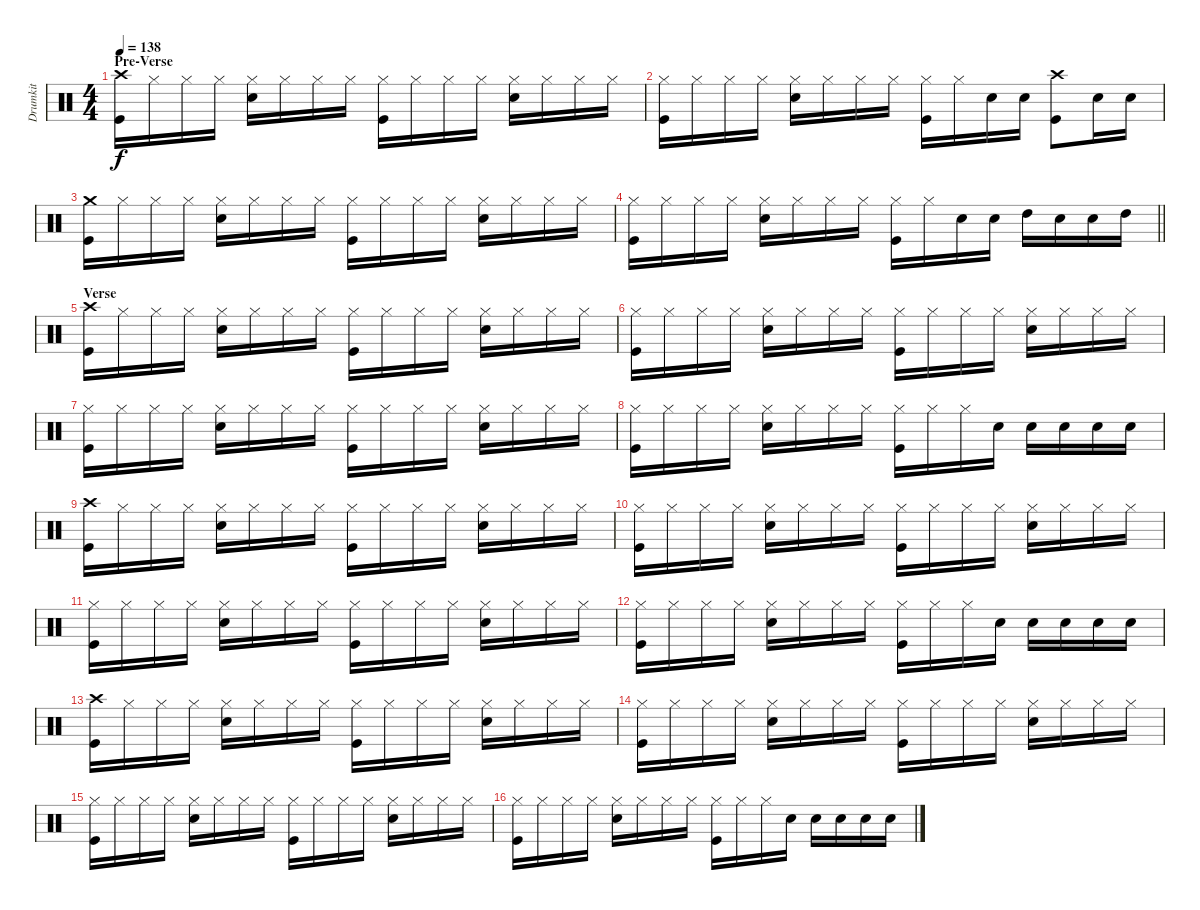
\track ("Drumkit" "Drumkit") {instrument percussion}
\staff {score}
\articulation defaults
\ts (4 4)
\section ("" "Pre-Verse")
\tempo 138
\clef neutral
\ks c
("Kick (hit)" "Crash high (hit)").16{dy f} "Hi-Hat (closed)".16 "Hi-Hat (closed)".16 "Hi-Hat (closed)".16 ("Snare (hit) 2" "Hi-Hat (closed)").16 "Hi-Hat (closed)".16 "Hi-Hat (closed)".16 "Hi-Hat (closed)".16 ("Kick (hit)" "Hi-Hat (closed)").16 "Hi-Hat (closed)".16 "Hi-Hat (closed)".16 "Hi-Hat (closed)".16 ("Snare (hit) 2" "Hi-Hat (closed)").16 "Hi-Hat (closed)".16 "Hi-Hat (closed)".16 "Hi-Hat (closed)".16 |
("Kick (hit)" "Hi-Hat (closed)").16 "Hi-Hat (closed)".16 "Hi-Hat (closed)".16 "Hi-Hat (closed)".16 ("Snare (hit) 2" "Hi-Hat (closed)").16 "Hi-Hat (closed)".16 "Hi-Hat (closed)".16 "Hi-Hat (closed)".16 ("Kick (hit)" "Hi-Hat (closed)").16 "Hi-Hat (closed)".16 "Snare (hit) 2".16 "Snare (hit) 2".16 ("Crash high (hit)" "Kick (hit)").8 "Snare (hit) 2".16 "Snare (hit) 2".16 |
("Kick (hit)" "Crash medium (hit)").16 "Hi-Hat (closed)".16 "Hi-Hat (closed)".16 "Hi-Hat (closed)".16 ("Snare (hit) 2" "Hi-Hat (closed)").16 "Hi-Hat (closed)".16 "Hi-Hat (closed)".16 "Hi-Hat (closed)".16 ("Kick (hit)" "Hi-Hat (closed)").16 "Hi-Hat (closed)".16 "Hi-Hat (closed)".16 "Hi-Hat (closed)".16 ("Snare (hit) 2" "Hi-Hat (closed)").16 "Hi-Hat (closed)".16 "Hi-Hat (closed)".16 "Hi-Hat (closed)".16 |
\barLineRight lightlight
("Kick (hit)" "Hi-Hat (closed)").16 "Hi-Hat (closed)".16 "Hi-Hat (closed)".16 "Hi-Hat (closed)".16 ("Snare (hit) 2" "Hi-Hat (closed)").16 "Hi-Hat (closed)".16 "Hi-Hat (closed)".16 "Hi-Hat (closed)".16 ("Kick (hit)" "Hi-Hat (closed)").16 "Hi-Hat (closed)".16 "Snare (hit) 2".16 "Snare (hit) 2".16 "High Tom (hit)".16 "Snare (hit) 2".16 "Snare (hit) 2".16 "High Tom (hit)".16 |
\section ("" "Verse ")
("Kick (hit)" "Crash high (hit)").16 "Hi-Hat (closed)".16 "Hi-Hat (closed)".16 "Hi-Hat (closed)".16 ("Snare (hit) 2" "Hi-Hat (closed)").16 "Hi-Hat (closed)".16 "Hi-Hat (closed)".16 "Hi-Hat (closed)".16 ("Kick (hit)" "Hi-Hat (closed)").16 "Hi-Hat (closed)".16 "Hi-Hat (closed)".16 "Hi-Hat (closed)".16 ("Snare (hit) 2" "Hi-Hat (closed)").16 "Hi-Hat (closed)".16 "Hi-Hat (closed)".16 "Hi-Hat (closed)".16 |
("Kick (hit)" "Hi-Hat (closed)").16 "Hi-Hat (closed)".16 "Hi-Hat (closed)".16 "Hi-Hat (closed)".16 ("Snare (hit) 2" "Hi-Hat (closed)").16 "Hi-Hat (closed)".16 "Hi-Hat (closed)".16 "Hi-Hat (closed)".16 ("Kick (hit)" "Hi-Hat (closed)").16 "Hi-Hat (closed)".16 "Hi-Hat (closed)".16 "Hi-Hat (closed)".16 ("Snare (hit) 2" "Hi-Hat (closed)").16 "Hi-Hat (closed)".16 "Hi-Hat (closed)".16 "Hi-Hat (closed)".16 |
("Kick (hit)" "Hi-Hat (closed)").16 "Hi-Hat (closed)".16 "Hi-Hat (closed)".16 "Hi-Hat (closed)".16 ("Snare (hit) 2" "Hi-Hat (closed)").16 "Hi-Hat (closed)".16 "Hi-Hat (closed)".16 "Hi-Hat (closed)".16 ("Kick (hit)" "Hi-Hat (closed)").16 "Hi-Hat (closed)".16 "Hi-Hat (closed)".16 "Hi-Hat (closed)".16 ("Snare (hit) 2" "Hi-Hat (closed)").16 "Hi-Hat (closed)".16 "Hi-Hat (closed)".16 "Hi-Hat (closed)".16 |
("Kick (hit)" "Hi-Hat (closed)").16 "Hi-Hat (closed)".16 "Hi-Hat (closed)".16 "Hi-Hat (closed)".16 ("Snare (hit) 2" "Hi-Hat (closed)").16 "Hi-Hat (closed)".16 "Hi-Hat (closed)".16 "Hi-Hat (closed)".16 ("Kick (hit)" "Hi-Hat (closed)").16 "Hi-Hat (closed)".16 "Hi-Hat (closed)".16 "Snare (hit) 2".16 "Snare (hit) 2".16 "Snare (hit) 2".16 "Snare (hit) 2".16 "Snare (hit) 2".16 |
("Kick (hit)" "Crash high (hit)").16 "Hi-Hat (closed)".16 "Hi-Hat (closed)".16 "Hi-Hat (closed)".16 ("Snare (hit) 2" "Hi-Hat (closed)").16 "Hi-Hat (closed)".16 "Hi-Hat (closed)".16 "Hi-Hat (closed)".16 ("Kick (hit)" "Hi-Hat (closed)").16 "Hi-Hat (closed)".16 "Hi-Hat (closed)".16 "Hi-Hat (closed)".16 ("Snare (hit) 2" "Hi-Hat (closed)").16 "Hi-Hat (closed)".16 "Hi-Hat (closed)".16 "Hi-Hat (closed)".16 |
("Kick (hit)" "Hi-Hat (closed)").16 "Hi-Hat (closed)".16 "Hi-Hat (closed)".16 "Hi-Hat (closed)".16 ("Snare (hit) 2" "Hi-Hat (closed)").16 "Hi-Hat (closed)".16 "Hi-Hat (closed)".16 "Hi-Hat (closed)".16 ("Kick (hit)" "Hi-Hat (closed)").16 "Hi-Hat (closed)".16 "Hi-Hat (closed)".16 "Hi-Hat (closed)".16 ("Snare (hit) 2" "Hi-Hat (closed)").16 "Hi-Hat (closed)".16 "Hi-Hat (closed)".16 "Hi-Hat (closed)".16 |
("Kick (hit)" "Hi-Hat (closed)").16 "Hi-Hat (closed)".16 "Hi-Hat (closed)".16 "Hi-Hat (closed)".16 ("Snare (hit) 2" "Hi-Hat (closed)").16 "Hi-Hat (closed)".16 "Hi-Hat (closed)".16 "Hi-Hat (closed)".16 ("Kick (hit)" "Hi-Hat (closed)").16 "Hi-Hat (closed)".16 "Hi-Hat (closed)".16 "Hi-Hat (closed)".16 ("Snare (hit) 2" "Hi-Hat (closed)").16 "Hi-Hat (closed)".16 "Hi-Hat (closed)".16 "Hi-Hat (closed)".16 |
("Kick (hit)" "Hi-Hat (closed)").16 "Hi-Hat (closed)".16 "Hi-Hat (closed)".16 "Hi-Hat (closed)".16 ("Snare (hit) 2" "Hi-Hat (closed)").16 "Hi-Hat (closed)".16 "Hi-Hat (closed)".16 "Hi-Hat (closed)".16 ("Kick (hit)" "Hi-Hat (closed)").16 "Hi-Hat (closed)".16 "Hi-Hat (closed)".16 "Snare (hit) 2".16 "Snare (hit) 2".16 "Snare (hit) 2".16 "Snare (hit) 2".16 "Snare (hit) 2".16 |
("Kick (hit)" "Crash high (hit)").16 "Hi-Hat (closed)".16 "Hi-Hat (closed)".16 "Hi-Hat (closed)".16 ("Snare (hit) 2" "Hi-Hat (closed)").16 "Hi-Hat (closed)".16 "Hi-Hat (closed)".16 "Hi-Hat (closed)".16 ("Kick (hit)" "Hi-Hat (closed)").16 "Hi-Hat (closed)".16 "Hi-Hat (closed)".16 "Hi-Hat (closed)".16 ("Snare (hit) 2" "Hi-Hat (closed)").16 "Hi-Hat (closed)".16 "Hi-Hat (closed)".16 "Hi-Hat (closed)".16 |
("Kick (hit)" "Hi-Hat (closed)").16 "Hi-Hat (closed)".16 "Hi-Hat (closed)".16 "Hi-Hat (closed)".16 ("Snare (hit) 2" "Hi-Hat (closed)").16 "Hi-Hat (closed)".16 "Hi-Hat (closed)".16 "Hi-Hat (closed)".16 ("Kick (hit)" "Hi-Hat (closed)").16 "Hi-Hat (closed)".16 "Hi-Hat (closed)".16 "Hi-Hat (closed)".16 ("Snare (hit) 2" "Hi-Hat (closed)").16 "Hi-Hat (closed)".16 "Hi-Hat (closed)".16 "Hi-Hat (closed)".16 |
("Kick (hit)" "Hi-Hat (closed)").16 "Hi-Hat (closed)".16 "Hi-Hat (closed)".16 "Hi-Hat (closed)".16 ("Snare (hit) 2" "Hi-Hat (closed)").16 "Hi-Hat (closed)".16 "Hi-Hat (closed)".16 "Hi-Hat (closed)".16 ("Kick (hit)" "Hi-Hat (closed)").16 "Hi-Hat (closed)".16 "Hi-Hat (closed)".16 "Hi-Hat (closed)".16 ("Snare (hit) 2" "Hi-Hat (closed)").16 "Hi-Hat (closed)".16 "Hi-Hat (closed)".16 "Hi-Hat (closed)".16 |
("Kick (hit)" "Hi-Hat (closed)").16 "Hi-Hat (closed)".16 "Hi-Hat (closed)".16 "Hi-Hat (closed)".16 ("Snare (hit) 2" "Hi-Hat (closed)").16 "Hi-Hat (closed)".16 "Hi-Hat (closed)".16 "Hi-Hat (closed)".16 ("Kick (hit)" "Hi-Hat (closed)").16 "Hi-Hat (closed)".16 "Hi-Hat (closed)".16 "Snare (hit) 2".16 "Snare (hit) 2".16 "Snare (hit) 2".16 "Snare (hit) 2".16 "Snare (hit) 2".16
